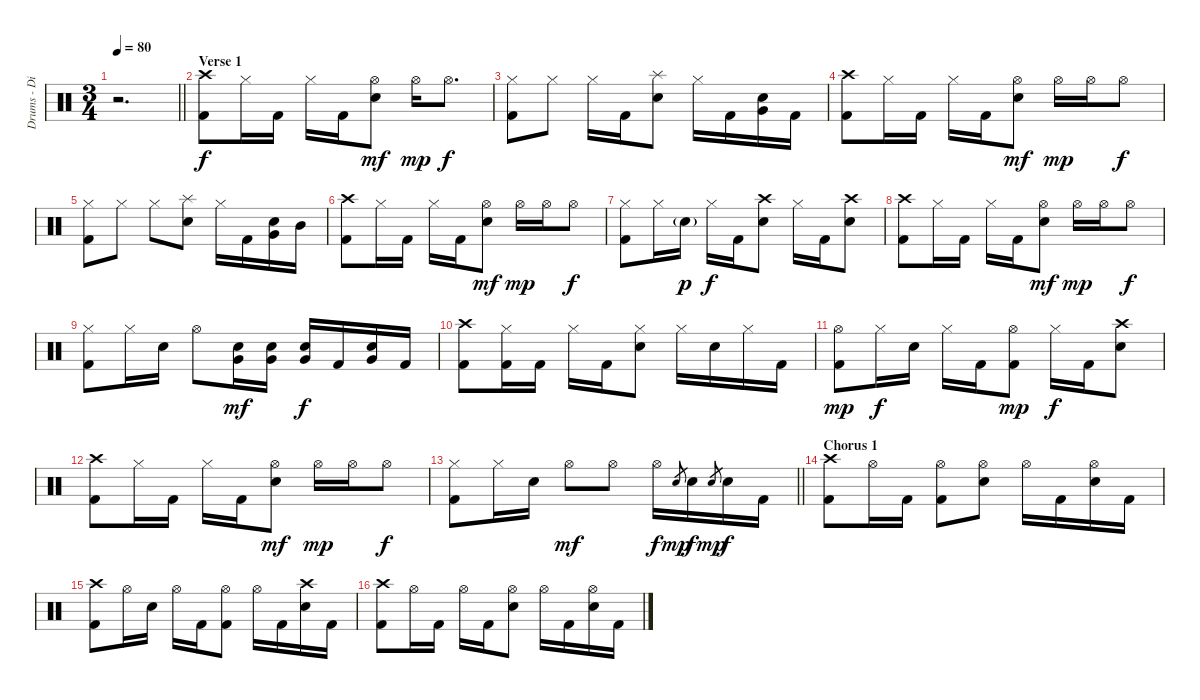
\track ("Drums - Dino Campanella" "Drums - Di") {instrument percussion}
\staff {score}
\articulation defaults
\ts (3 4)
\tempo 80
\clef neutral
\barLineRight lightlight
\ks c
r.2{d dy f} |
\section ("" "Verse 1")
("Crash high (hit)" "Kick (hit) 2").8 "Hi-Hat (closed)".16 "Kick (hit) 2".16 "Hi-Hat (closed)".16 "Kick (hit) 2".16 ("Hi-Hat (open)" "Electric Snare (hit)").8{dy mf} "Hi-Hat (open)".16{dy mp} "Hi-Hat (open)".8{d dy f} |
("Hi-Hat (closed)" "Kick (hit) 2").8 "Hi-Hat (closed)".8 "Hi-Hat (closed)".16 "Kick (hit) 2".16 ("Splash (hit)" "Electric Snare (hit)").8 "Hi-Hat (closed)".16 "Kick (hit) 2".16 ("Electric Snare (hit)" "Very Low Tom (hit)").16 "Kick (hit) 2".16 |
("Crash high (hit)" "Kick (hit) 2").8 "Hi-Hat (closed)".16 "Kick (hit) 2".16 "Hi-Hat (closed)".16 "Kick (hit) 2".16 ("Hi-Hat (open)" "Electric Snare (hit)").8{dy mf} "Hi-Hat (open)".16{dy mp} "Hi-Hat (open)".16 "Hi-Hat (open)".8{dy f} |
("Hi-Hat (closed)" "Kick (hit) 2").8 "Hi-Hat (closed)".8 "Hi-Hat (closed)".8 ("Splash (hit)" "Electric Snare (hit)").8 "Hi-Hat (closed)".16 "Kick (hit) 2".16 ("Electric Snare (hit)" "Very Low Tom (hit)").16 "Mid Tom (hit)".16 |
("Crash high (hit)" "Kick (hit) 2").8 "Hi-Hat (closed)".16 "Kick (hit) 2".16 "Hi-Hat (closed)".16 "Kick (hit) 2".16 ("Hi-Hat (open)" "Electric Snare (hit)").8{dy mf} "Hi-Hat (open)".16{dy mp} "Hi-Hat (open)".16 "Hi-Hat (open)".8{dy f} |
("Hi-Hat (closed)" "Kick (hit) 2").8 "Hi-Hat (closed)".16 "Electric Snare (hit)"{g}.16{dy p} "Hi-Hat (closed)".16{dy f} "Kick (hit) 2".16 ("Crash high (hit)" "Electric Snare (hit)").8 "Hi-Hat (closed)".16 "Kick (hit) 2".16 ("Crash high (hit)" "Electric Snare (hit)").8 |
("Crash high (hit)" "Kick (hit) 2").8 "Hi-Hat (closed)".16 "Kick (hit) 2".16 "Hi-Hat (closed)".16 "Kick (hit) 2".16 ("Hi-Hat (open)" "Electric Snare (hit)").8{dy mf} "Hi-Hat (open)".16{dy mp} "Hi-Hat (open)".16 "Hi-Hat (open)".8{dy f} |
("Hi-Hat (closed)" "Kick (hit) 2").8 "Hi-Hat (closed)".16 "Electric Snare (hit)".16 "Hi-Hat (open)".8 ("Electric Snare (hit)" "Very Low Tom (hit)").16{dy mf} ("Electric Snare (hit)" "Very Low Tom (hit)").16 ("Electric Snare (hit)" "Very Low Tom (hit)").16{dy f} "Kick (hit) 2".16 ("Electric Snare (hit)" "Very Low Tom (hit)").16 "Kick (hit) 2".16 |
("Crash high (hit)" "Kick (hit) 2").8 ("Hi-Hat (closed)" "Kick (hit) 2").16 "Kick (hit) 2".16 "Hi-Hat (closed)".16 "Kick (hit) 2".16 ("Hi-Hat (closed)" "Electric Snare (hit)").8 "Hi-Hat (closed)".16 "Electric Snare (hit)".16 "Hi-Hat (closed)".16 "Kick (hit) 2".16 |
("Hi-Hat (open)" "Kick (hit) 2").8{dy mp} "Hi-Hat (closed)".16{dy f} "Electric Snare (hit)".16 "Hi-Hat (closed)".16 "Kick (hit) 2".16 ("Hi-Hat (open)" "Kick (hit) 2").8{dy mp} "Hi-Hat (closed)".16{dy f} "Kick (hit) 2".16 ("Crash high (hit)" "Electric Snare (hit)").8 |
("Crash high (hit)" "Kick (hit) 2").8 "Hi-Hat (closed)".16 "Kick (hit) 2".16 "Hi-Hat (closed)".16 "Kick (hit) 2".16 ("Hi-Hat (open)" "Electric Snare (hit)").8{dy mf} "Hi-Hat (open)".16{dy mp} "Hi-Hat (open)".16 "Hi-Hat (open)".8{dy f} |
\barLineRight lightlight
("Hi-Hat (closed)" "Kick (hit) 2").8 "Hi-Hat (closed)".16 "Electric Snare (hit)".16 "Hi-Hat (open)".8{dy mf} "Hi-Hat (open)".8 "Hi-Hat (open)".16{dy f} "Electric Snare (hit)".8{gr dy mp} "Electric Snare (hit)".16{dy f} "Electric Snare (hit)".8{gr dy mp} "Electric Snare (hit)".16{dy f} "Kick (hit) 2".16 |
\section ("" "Chorus 1")
("Crash high (hit)" "Kick (hit) 2").8 "Hi-Hat (open)".16 "Kick (hit) 2".16 ("Hi-Hat (open)" "Kick (hit) 2").8 ("Hi-Hat (open)" "Electric Snare (hit)").8 "Hi-Hat (open)".16 "Kick (hit) 2".16 ("Hi-Hat (open)" "Electric Snare (hit)").16 "Kick (hit) 2".16 |
("Crash high (hit)" "Kick (hit) 2").8 "Hi-Hat (open)".16 "Electric Snare (hit)".16 "Hi-Hat (open)".16 "Kick (hit) 2".16 ("Hi-Hat (open)" "Kick (hit) 2").8 "Hi-Hat (open)".16 "Kick (hit) 2".16 ("Crash high (hit)" "Electric Snare (hit)").16 "Kick (hit) 2".16 |
("Crash high (hit)" "Kick (hit) 2").8 "Hi-Hat (open)".16 "Kick (hit) 2".16 "Hi-Hat (open)".16 "Kick (hit) 2".16 ("Hi-Hat (open)" "Electric Snare (hit)").8 "Hi-Hat (open)".16 "Kick (hit) 2".16 ("Hi-Hat (open)" "Electric Snare (hit)").16 "Kick (hit) 2".16
